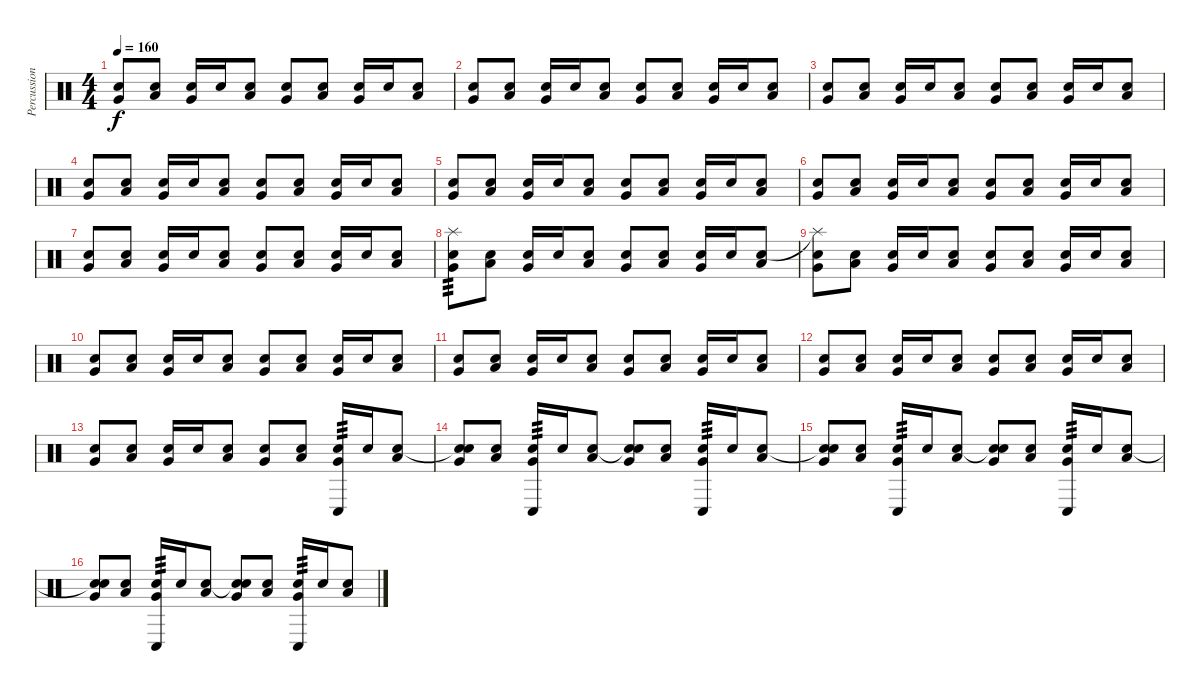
\track ("Percussions" "Percussion") {instrument percussion}
\staff {score}
\articulation defaults
\ts (4 4)
\tempo 160
\clef neutral
\ks c
("Snare (hit) 2" "Very Low Tom (hit)").8{dy f} ("Snare (hit) 2" "Low Tom (hit)").8 ("Snare (hit) 2" "Very Low Tom (hit)").16 "Snare (hit) 2".16 ("Snare (hit) 2" "Low Tom (hit)").8 ("Snare (hit) 2" "Very Low Tom (hit)").8 ("Snare (hit) 2" "Low Tom (hit)").8 ("Snare (hit) 2" "Very Low Tom (hit)").16 "Snare (hit) 2".16 ("Snare (hit) 2" "Low Tom (hit)").8 |
("Snare (hit) 2" "Very Low Tom (hit)").8 ("Snare (hit) 2" "Low Tom (hit)").8 ("Snare (hit) 2" "Very Low Tom (hit)").16 "Snare (hit) 2".16 ("Snare (hit) 2" "Low Tom (hit)").8 ("Snare (hit) 2" "Very Low Tom (hit)").8 ("Snare (hit) 2" "Low Tom (hit)").8 ("Snare (hit) 2" "Very Low Tom (hit)").16 "Snare (hit) 2".16 ("Snare (hit) 2" "Low Tom (hit)").8 |
("Snare (hit) 2" "Very Low Tom (hit)").8 ("Snare (hit) 2" "Low Tom (hit)").8 ("Snare (hit) 2" "Very Low Tom (hit)").16 "Snare (hit) 2".16 ("Snare (hit) 2" "Low Tom (hit)").8 ("Snare (hit) 2" "Very Low Tom (hit)").8 ("Snare (hit) 2" "Low Tom (hit)").8 ("Snare (hit) 2" "Very Low Tom (hit)").16 "Snare (hit) 2".16 ("Snare (hit) 2" "Low Tom (hit)").8 |
("Snare (hit) 2" "Very Low Tom (hit)").8 ("Snare (hit) 2" "Low Tom (hit)").8 ("Snare (hit) 2" "Very Low Tom (hit)").16 "Snare (hit) 2".16 ("Snare (hit) 2" "Low Tom (hit)").8 ("Snare (hit) 2" "Very Low Tom (hit)").8 ("Snare (hit) 2" "Low Tom (hit)").8 ("Snare (hit) 2" "Very Low Tom (hit)").16 "Snare (hit) 2".16 ("Snare (hit) 2" "Low Tom (hit)").8 |
("Snare (hit) 2" "Very Low Tom (hit)").8 ("Snare (hit) 2" "Low Tom (hit)").8 ("Snare (hit) 2" "Very Low Tom (hit)").16 "Snare (hit) 2".16 ("Snare (hit) 2" "Low Tom (hit)").8 ("Snare (hit) 2" "Very Low Tom (hit)").8 ("Snare (hit) 2" "Low Tom (hit)").8 ("Snare (hit) 2" "Very Low Tom (hit)").16 "Snare (hit) 2".16 ("Snare (hit) 2" "Low Tom (hit)").8 |
("Snare (hit) 2" "Very Low Tom (hit)").8 ("Snare (hit) 2" "Low Tom (hit)").8 ("Snare (hit) 2" "Very Low Tom (hit)").16 "Snare (hit) 2".16 ("Snare (hit) 2" "Low Tom (hit)").8 ("Snare (hit) 2" "Very Low Tom (hit)").8 ("Snare (hit) 2" "Low Tom (hit)").8 ("Snare (hit) 2" "Very Low Tom (hit)").16 "Snare (hit) 2".16 ("Snare (hit) 2" "Low Tom (hit)").8 |
("Snare (hit) 2" "Very Low Tom (hit)").8 ("Snare (hit) 2" "Low Tom (hit)").8 ("Snare (hit) 2" "Very Low Tom (hit)").16 "Snare (hit) 2".16 ("Snare (hit) 2" "Low Tom (hit)").8 ("Snare (hit) 2" "Very Low Tom (hit)").8 ("Snare (hit) 2" "Low Tom (hit)").8 ("Snare (hit) 2" "Very Low Tom (hit)").16 "Snare (hit) 2".16 ("Snare (hit) 2" "Low Tom (hit)").8 |
("Splash (hit)" "Snare (hit) 2" "Very Low Tom (hit)").8{tp 3} ("Snare (hit) 2" "Low Tom (hit)").8 ("Snare (hit) 2" "Very Low Tom (hit)").16 "Snare (hit) 2".16 ("Snare (hit) 2" "Low Tom (hit)").8 ("Snare (hit) 2" "Very Low Tom (hit)").8 ("Snare (hit) 2" "Low Tom (hit)").8 ("Snare (hit) 2" "Very Low Tom (hit)").16 "Snare (hit) 2".16 ("Snare (hit) 2" "Low Tom (hit)").8 |
("Splash (hit)"{t} "Snare (hit) 2" "Very Low Tom (hit)").8 ("Snare (hit) 2" "Low Tom (hit)").8 ("Snare (hit) 2" "Very Low Tom (hit)").16 "Snare (hit) 2".16 ("Snare (hit) 2" "Low Tom (hit)").8 ("Snare (hit) 2" "Very Low Tom (hit)").8 ("Snare (hit) 2" "Low Tom (hit)").8 ("Snare (hit) 2" "Very Low Tom (hit)").16 "Snare (hit) 2".16 ("Snare (hit) 2" "Low Tom (hit)").8 |
("Snare (hit) 2" "Very Low Tom (hit)").8 ("Snare (hit) 2" "Low Tom (hit)").8 ("Snare (hit) 2" "Very Low Tom (hit)").16 "Snare (hit) 2".16 ("Snare (hit) 2" "Low Tom (hit)").8 ("Snare (hit) 2" "Very Low Tom (hit)").8 ("Snare (hit) 2" "Low Tom (hit)").8 ("Snare (hit) 2" "Very Low Tom (hit)").16 "Snare (hit) 2".16 ("Snare (hit) 2" "Low Tom (hit)").8 |
("Snare (hit) 2" "Very Low Tom (hit)").8 ("Snare (hit) 2" "Low Tom (hit)").8 ("Snare (hit) 2" "Very Low Tom (hit)").16 "Snare (hit) 2".16 ("Snare (hit) 2" "Low Tom (hit)").8 ("Snare (hit) 2" "Very Low Tom (hit)").8 ("Snare (hit) 2" "Low Tom (hit)").8 ("Snare (hit) 2" "Very Low Tom (hit)").16 "Snare (hit) 2".16 ("Snare (hit) 2" "Low Tom (hit)").8 |
("Snare (hit) 2" "Very Low Tom (hit)").8 ("Snare (hit) 2" "Low Tom (hit)").8 ("Snare (hit) 2" "Very Low Tom (hit)").16 "Snare (hit) 2".16 ("Snare (hit) 2" "Low Tom (hit)").8 ("Snare (hit) 2" "Very Low Tom (hit)").8 ("Snare (hit) 2" "Low Tom (hit)").8 ("Snare (hit) 2" "Very Low Tom (hit)").16 "Snare (hit) 2".16 ("Snare (hit) 2" "Low Tom (hit)").8 |
("Snare (hit) 2" "Very Low Tom (hit)").8 ("Snare (hit) 2" "Low Tom (hit)").8 ("Snare (hit) 2" "Very Low Tom (hit)").16 "Snare (hit) 2".16 ("Snare (hit) 2" "Low Tom (hit)").8 ("Snare (hit) 2" "Very Low Tom (hit)").8 ("Snare (hit) 2" "Low Tom (hit)").8 ("Conga low (hit)" "Snare (hit) 2" "Very Low Tom (hit)").16{tp 3} "Snare (hit) 2".16 ("Snare (hit) 2" "Low Tom (hit)").8 |
("Snare (hit)"{t} "Snare (hit) 2" "Very Low Tom (hit)").8 ("Snare (hit) 2" "Low Tom (hit)").8 ("Conga low (hit)" "Snare (hit) 2" "Very Low Tom (hit)").16{tp 3} "Snare (hit) 2".16 ("Snare (hit) 2" "Low Tom (hit)").8 ("Snare (hit)"{t} "Snare (hit) 2" "Very Low Tom (hit)").8 ("Snare (hit) 2" "Low Tom (hit)").8 ("Conga low (hit)" "Snare (hit) 2" "Very Low Tom (hit)").16{tp 3} "Snare (hit) 2".16 ("Snare (hit) 2" "Low Tom (hit)").8 |
("Snare (hit)"{t} "Snare (hit) 2" "Very Low Tom (hit)").8 ("Snare (hit) 2" "Low Tom (hit)").8 ("Conga low (hit)" "Snare (hit) 2" "Very Low Tom (hit)").16{tp 3} "Snare (hit) 2".16 ("Snare (hit) 2" "Low Tom (hit)").8 ("Snare (hit)"{t} "Snare (hit) 2" "Very Low Tom (hit)").8 ("Snare (hit) 2" "Low Tom (hit)").8 ("Conga low (hit)" "Snare (hit) 2" "Very Low Tom (hit)").16{tp 3} "Snare (hit) 2".16 ("Snare (hit) 2" "Low Tom (hit)").8 |
("Snare (hit)"{t} "Snare (hit) 2" "Very Low Tom (hit)").8 ("Snare (hit) 2" "Low Tom (hit)").8 ("Conga low (hit)" "Snare (hit) 2" "Very Low Tom (hit)").16{tp 3} "Snare (hit) 2".16 ("Snare (hit) 2" "Low Tom (hit)").8 ("Snare (hit)"{t} "Snare (hit) 2" "Very Low Tom (hit)").8 ("Snare (hit) 2" "Low Tom (hit)").8 ("Conga low (hit)" "Snare (hit) 2" "Very Low Tom (hit)").16{tp 3} "Snare (hit) 2".16 ("Snare (hit) 2" "Low Tom (hit)").8
